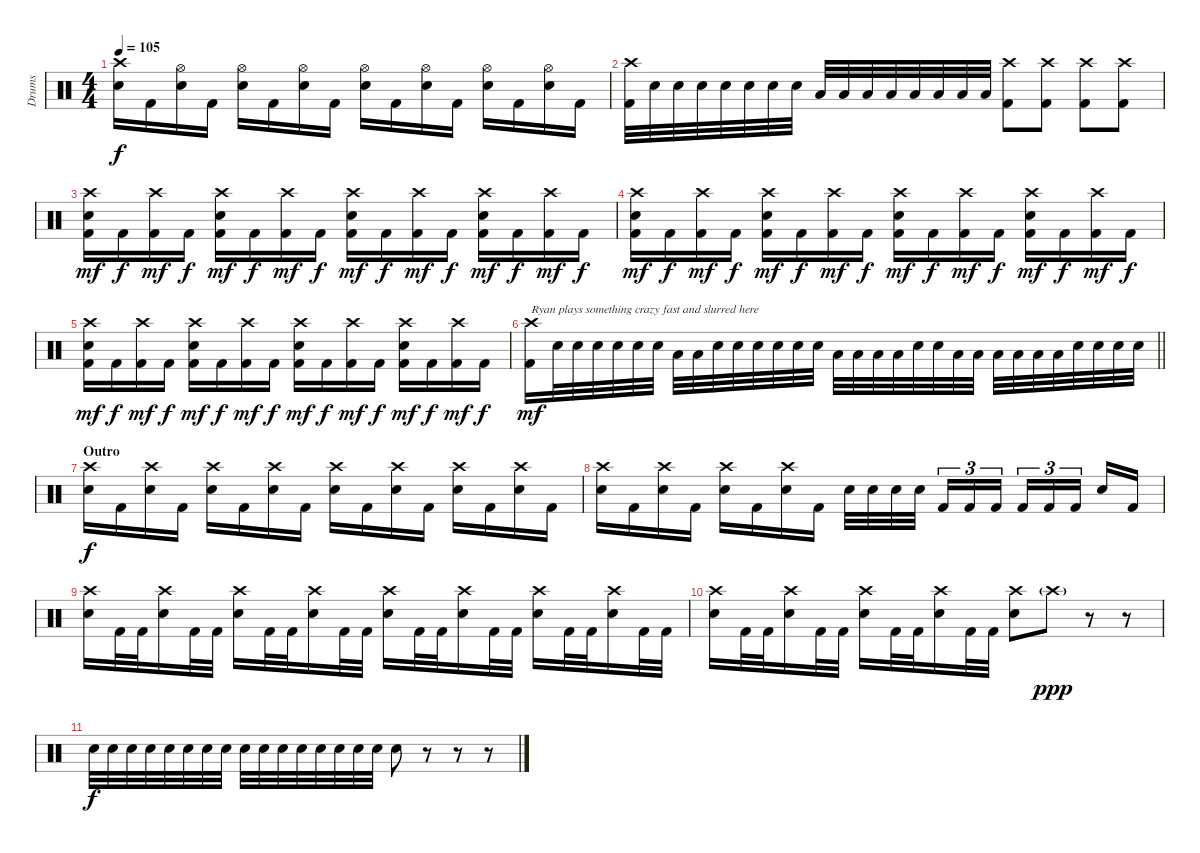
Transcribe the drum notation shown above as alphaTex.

\track ("Drums" "Drums") {instrument percussion}
\staff {score}
\articulation defaults
\ts (4 4)
\tempo 105
\clef neutral
\ks c
("Crash high (hit)" "Electric Snare (hit)").16{dy f} "Kick (hit) 2".16 ("Hi-Hat (open)" "Electric Snare (hit)").16 "Kick (hit) 2".16 ("Hi-Hat (open)" "Electric Snare (hit)").16 "Kick (hit) 2".16 ("Hi-Hat (open)" "Electric Snare (hit)").16 "Kick (hit) 2".16 ("Hi-Hat (open)" "Electric Snare (hit)").16 "Kick (hit) 2".16 ("Hi-Hat (open)" "Electric Snare (hit)").16 "Kick (hit) 2".16 ("Hi-Hat (open)" "Electric Snare (hit)").16 "Kick (hit) 2".16 ("Hi-Hat (open)" "Electric Snare (hit)").16 "Kick (hit) 2".16 |
("Crash high (hit)" "Kick (hit) 2").32 "Electric Snare (hit)".32 "Electric Snare (hit)".32 "Electric Snare (hit)".32 "Electric Snare (hit)".32 "Electric Snare (hit)".32 "Electric Snare (hit)".32 "Electric Snare (hit)".32 "Low Tom (hit)".32 "Low Tom (hit)".32 "Low Tom (hit)".32 "Low Tom (hit)".32 "Low Floor Tom (hit)".32 "Low Floor Tom (hit)".32 "Low Floor Tom (hit)".32 "Low Floor Tom (hit)".32 ("Crash high (hit)" "Kick (hit) 2").8 ("Crash high (hit)" "Kick (hit) 2").8 ("Crash high (hit)" "Kick (hit) 2").8 ("Crash high (hit)" "Kick (hit) 2").8 |
("Crash high (hit)" "Electric Snare (hit)" "Kick (hit) 2").16{dy mf} "Kick (hit) 2".16{dy f} ("Crash high (hit)" "Kick (hit) 2").16{dy mf} "Kick (hit) 2".16{dy f} ("Crash high (hit)" "Electric Snare (hit)" "Kick (hit) 2").16{dy mf} "Kick (hit) 2".16{dy f} ("Crash high (hit)" "Kick (hit) 2").16{dy mf} "Kick (hit) 2".16{dy f} ("Crash high (hit)" "Electric Snare (hit)" "Kick (hit) 2").16{dy mf} "Kick (hit) 2".16{dy f} ("Crash high (hit)" "Kick (hit) 2").16{dy mf} "Kick (hit) 2".16{dy f} ("Crash high (hit)" "Electric Snare (hit)" "Kick (hit) 2").16{dy mf} "Kick (hit) 2".16{dy f} ("Crash high (hit)" "Kick (hit) 2").16{dy mf} "Kick (hit) 2".16{dy f} |
("Crash high (hit)" "Electric Snare (hit)" "Kick (hit) 2").16{dy mf} "Kick (hit) 2".16{dy f} ("Crash high (hit)" "Kick (hit) 2").16{dy mf} "Kick (hit) 2".16{dy f} ("Crash high (hit)" "Electric Snare (hit)" "Kick (hit) 2").16{dy mf} "Kick (hit) 2".16{dy f} ("Crash high (hit)" "Kick (hit) 2").16{dy mf} "Kick (hit) 2".16{dy f} ("Crash high (hit)" "Electric Snare (hit)" "Kick (hit) 2").16{dy mf} "Kick (hit) 2".16{dy f} ("Crash high (hit)" "Kick (hit) 2").16{dy mf} "Kick (hit) 2".16{dy f} ("Crash high (hit)" "Electric Snare (hit)" "Kick (hit) 2").16{dy mf} "Kick (hit) 2".16{dy f} ("Crash high (hit)" "Kick (hit) 2").16{dy mf} "Kick (hit) 2".16{dy f} |
("Crash high (hit)" "Electric Snare (hit)" "Kick (hit) 2").16{dy mf} "Kick (hit) 2".16{dy f} ("Crash high (hit)" "Kick (hit) 2").16{dy mf} "Kick (hit) 2".16{dy f} ("Crash high (hit)" "Electric Snare (hit)" "Kick (hit) 2").16{dy mf} "Kick (hit) 2".16{dy f} ("Crash high (hit)" "Kick (hit) 2").16{dy mf} "Kick (hit) 2".16{dy f} ("Crash high (hit)" "Electric Snare (hit)" "Kick (hit) 2").16{dy mf} "Kick (hit) 2".16{dy f} ("Crash high (hit)" "Kick (hit) 2").16{dy mf} "Kick (hit) 2".16{dy f} ("Crash high (hit)" "Electric Snare (hit)" "Kick (hit) 2").16{dy mf} "Kick (hit) 2".16{dy f} ("Crash high (hit)" "Kick (hit) 2").16{dy mf} "Kick (hit) 2".16{dy f} |
\barLineRight lightlight
("Crash high (hit)" "Kick (hit) 2").16{txt "Ryan plays something crazy fast and slurred here" dy mf} "Electric Snare (hit)".32 "Electric Snare (hit)".32 "Electric Snare (hit)".32 "Electric Snare (hit)".32 "Electric Snare (hit)".32 "Electric Snare (hit)".32 "Low Tom (hit)".32 "Low Tom (hit)".32 "Electric Snare (hit)".32 "Electric Snare (hit)".32 "Electric Snare (hit)".32 "Electric Snare (hit)".32 "Electric Snare (hit)".32 "Electric Snare (hit)".32 "Low Tom (hit)".32 "Low Tom (hit)".32 "Low Tom (hit)".32 "Low Tom (hit)".32 "Electric Snare (hit)".32 "Electric Snare (hit)".32 "Low Tom (hit)".32 "Low Tom (hit)".32 "Low Tom (hit)".32 "Low Tom (hit)".32 "Low Tom (hit)".32 "Low Tom (hit)".32 "Electric Snare (hit)".32 "Electric Snare (hit)".32 "Electric Snare (hit)".32 "Electric Snare (hit)".32 |
\section ("" "Outro")
("Crash high (hit)" "Electric Snare (hit)").16{dy f} "Kick (hit) 2".16 ("Crash high (hit)" "Electric Snare (hit)").16 "Kick (hit) 2".16 ("Crash high (hit)" "Electric Snare (hit)").16 "Kick (hit) 2".16 ("Crash high (hit)" "Electric Snare (hit)").16 "Kick (hit) 2".16 ("Crash high (hit)" "Electric Snare (hit)").16 "Kick (hit) 2".16 ("Crash high (hit)" "Electric Snare (hit)").16 "Kick (hit) 2".16 ("Crash high (hit)" "Electric Snare (hit)").16 "Kick (hit) 2".16 ("Crash high (hit)" "Electric Snare (hit)").16 "Kick (hit) 2".16 |
("Crash high (hit)" "Electric Snare (hit)").16 "Kick (hit) 2".16 ("Crash high (hit)" "Electric Snare (hit)").16 "Kick (hit) 2".16 ("Crash high (hit)" "Electric Snare (hit)").16 "Kick (hit) 2".16 ("Crash high (hit)" "Electric Snare (hit)").16 "Kick (hit) 2".16 "Electric Snare (hit)".32 "Electric Snare (hit)".32 "Electric Snare (hit)".32 "Electric Snare (hit)".32{beam splitsecondary} "Kick (hit) 2".16{tu (3 2)} "Kick (hit) 2".16{tu (3 2)} "Kick (hit) 2".16{tu (3 2)} "Kick (hit) 2".16{tu (3 2)} "Kick (hit) 2".16{tu (3 2)} "Kick (hit) 2".16{tu (3 2) beam splitsecondary} "Electric Snare (hit)".16 "Kick (hit) 2".16 |
("Crash high (hit)" "Electric Snare (hit)").16 "Kick (hit) 2".32 "Kick (hit) 2".32 ("Crash high (hit)" "Electric Snare (hit)").16 "Kick (hit) 2".32 "Kick (hit) 2".32 ("Crash high (hit)" "Electric Snare (hit)").16 "Kick (hit) 2".32 "Kick (hit) 2".32 ("Crash high (hit)" "Electric Snare (hit)").16 "Kick (hit) 2".32 "Kick (hit) 2".32 ("Crash high (hit)" "Electric Snare (hit)").16 "Kick (hit) 2".32 "Kick (hit) 2".32 ("Crash high (hit)" "Electric Snare (hit)").16 "Kick (hit) 2".32 "Kick (hit) 2".32 ("Crash high (hit)" "Electric Snare (hit)").16 "Kick (hit) 2".32 "Kick (hit) 2".32 ("Crash high (hit)" "Electric Snare (hit)").16 "Kick (hit) 2".32 "Kick (hit) 2".32 |
("Crash high (hit)" "Electric Snare (hit)").16 "Kick (hit) 2".32 "Kick (hit) 2".32 ("Crash high (hit)" "Electric Snare (hit)").16 "Kick (hit) 2".32 "Kick (hit) 2".32 ("Crash high (hit)" "Electric Snare (hit)").16 "Kick (hit) 2".32 "Kick (hit) 2".32 ("Crash high (hit)" "Electric Snare (hit)").16 "Kick (hit) 2".32 "Kick (hit) 2".32 ("Crash high (hit)" "Electric Snare (hit)").8 "Crash high (hit)"{g}.8{dy ppp} r.8 r.8 |
"Electric Snare (hit)".32{dy f} "Electric Snare (hit)".32 "Electric Snare (hit)".32 "Electric Snare (hit)".32 "Electric Snare (hit)".32 "Electric Snare (hit)".32 "Electric Snare (hit)".32 "Electric Snare (hit)".32 "Electric Snare (hit)".32 "Electric Snare (hit)".32 "Electric Snare (hit)".32 "Electric Snare (hit)".32 "Electric Snare (hit)".32 "Electric Snare (hit)".32 "Electric Snare (hit)".32 "Electric Snare (hit)".32 "Electric Snare (hit)".8 r.8 r.8 r.8
